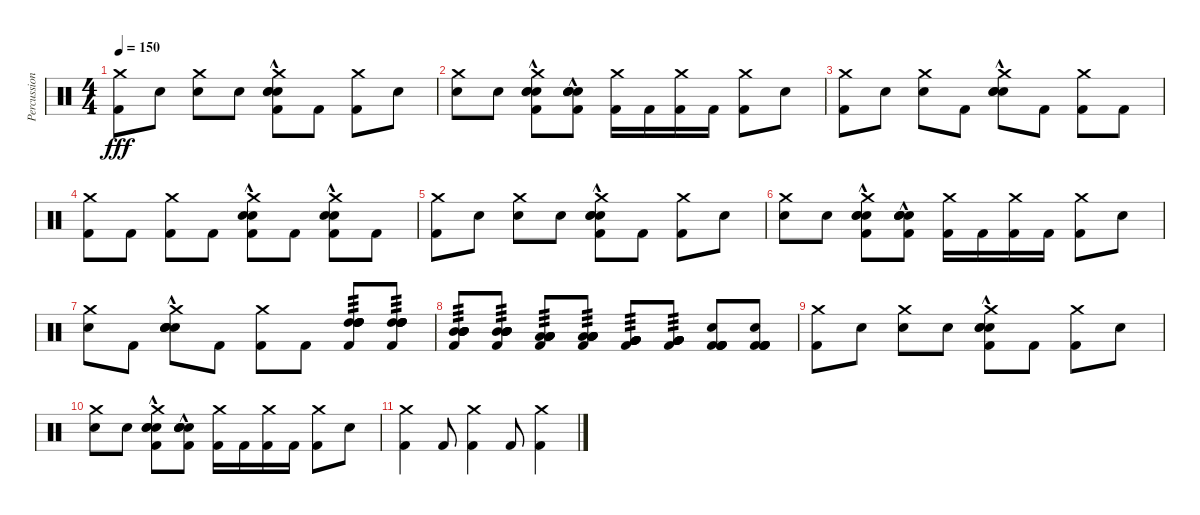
\track ("Percussion" "Percussion") {instrument percussion}
\staff {score}
\articulation defaults
\ts (4 4)
\tempo 150
\clef neutral
\ks c
("Crash medium (hit)" "Kick (hit) 2").8{dy fff} "Snare (hit)".8 ("Crash medium (hit)" "Snare (hit)").8 "Snare (hit)".8 ("Snare (hit) 2"{hac} "Snare (hit) 2"{hac} "Crash medium (hit)"{hac} "Snare (hit) 2"{hac} "Kick (hit) 2"{hac}).8 "Kick (hit) 2".8 ("Crash medium (hit)" "Kick (hit) 2").8 "Snare (hit)".8 |
("Crash medium (hit)" "Snare (hit)").8 "Snare (hit)".8 ("Snare (hit) 2"{hac} "Snare (hit) 2"{hac} "Crash medium (hit)"{hac} "Snare (hit) 2"{hac} "Kick (hit) 2"{hac}).8 ("Snare (hit) 2"{hac} "Snare (hit) 2"{hac} "Snare (hit) 2"{hac} "Snare (hit) 2"{hac} "Kick (hit) 2"{hac}).8 ("Crash medium (hit)" "Kick (hit) 2").16 "Kick (hit) 2".16 ("Crash medium (hit)" "Kick (hit) 2").16 "Kick (hit) 2".16 ("Crash medium (hit)" "Kick (hit) 2").8 "Snare (hit)".8 |
("Crash medium (hit)" "Kick (hit) 2").8 "Snare (hit)".8 ("Crash medium (hit)" "Snare (hit)").8 "Kick (hit) 2".8 ("Crash medium (hit)"{hac} "Snare (hit) 2"{hac} "Snare (hit) 2"{hac} "Snare (hit) 2"{hac}).8 "Kick (hit) 2".8 ("Crash medium (hit)" "Kick (hit) 2").8 "Kick (hit) 2".8 |
("Crash medium (hit)" "Kick (hit) 2").8 "Kick (hit) 2".8 ("Crash medium (hit)" "Kick (hit) 2").8 "Kick (hit) 2".8 ("Crash medium (hit)"{hac} "Snare (hit) 2"{hac} "Snare (hit) 2"{hac} "Kick (hit) 2"{hac}).8 "Kick (hit) 2".8 ("Crash medium (hit)"{hac} "Snare (hit) 2"{hac} "Snare (hit) 2"{hac} "Kick (hit) 2"{hac}).8 "Kick (hit) 2".8 |
("Crash medium (hit)" "Kick (hit) 2").8 "Snare (hit)".8 ("Crash medium (hit)" "Snare (hit)").8 "Snare (hit)".8 ("Snare (hit) 2"{hac} "Snare (hit) 2"{hac} "Crash medium (hit)"{hac} "Snare (hit) 2"{hac} "Kick (hit) 2"{hac}).8 "Kick (hit) 2".8 ("Crash medium (hit)" "Kick (hit) 2").8 "Snare (hit)".8 |
("Crash medium (hit)" "Snare (hit)").8 "Snare (hit)".8 ("Snare (hit) 2"{hac} "Snare (hit) 2"{hac} "Crash medium (hit)"{hac} "Snare (hit) 2"{hac} "Kick (hit) 2"{hac}).8 ("Snare (hit) 2"{hac} "Snare (hit) 2"{hac} "Snare (hit) 2"{hac} "Snare (hit) 2"{hac} "Kick (hit) 2"{hac}).8 ("Crash medium (hit)" "Kick (hit) 2").16 "Kick (hit) 2".16 ("Crash medium (hit)" "Kick (hit) 2").16 "Kick (hit) 2".16 ("Crash medium (hit)" "Kick (hit) 2").8 "Snare (hit)".8 |
("Crash medium (hit)" "Snare (hit)").8 "Kick (hit) 2".8 ("Snare (hit) 2"{hac} "Snare (hit) 2"{hac} "Crash medium (hit)"{hac} "Snare (hit) 2"{hac} "Snare (hit) 2"{hac}).8 "Kick (hit) 2".8 ("Crash medium (hit)" "Kick (hit) 2").8 "Kick (hit) 2".8 ("High Tom (hit)" "High Tom (hit)" "High Tom (hit)" "High Tom (hit)" "High Tom (hit)" "Kick (hit) 2").8{tp 3} ("High Tom (hit)" "High Tom (hit)" "High Tom (hit)" "High Tom (hit)" "High Tom (hit)" "Kick (hit) 2").8{tp 3} |
("Mid Tom (hit)" "Mid Tom (hit)" "Mid Tom (hit)" "Mid Tom (hit)" "Mid Tom (hit)" "Kick (hit) 2").8{tp 3} ("Mid Tom (hit)" "Mid Tom (hit)" "Mid Tom (hit)" "Mid Tom (hit)" "Mid Tom (hit)" "Kick (hit) 2").8{tp 3} ("Low Tom (hit)" "Low Tom (hit)" "Low Tom (hit)" "Low Tom (hit)" "Low Tom (hit)" "Kick (hit) 2").8{tp 3} ("Low Tom (hit)" "Low Tom (hit)" "Low Tom (hit)" "Low Tom (hit)" "Low Tom (hit)" "Kick (hit) 2").8{tp 3} ("Very Low Tom (hit)" "Very Low Tom (hit)" "Very Low Tom (hit)" "Very Low Tom (hit)" "Very Low Tom (hit)" "Kick (hit) 2").8{tp 3} ("Very Low Tom (hit)" "Very Low Tom (hit)" "Very Low Tom (hit)" "Very Low Tom (hit)" "Very Low Tom (hit)" "Kick (hit) 2").8{tp 3} ("Snare (hit) 2" "Kick (hit) 2" "Kick (hit) 2" "Kick (hit) 2" "Kick (hit) 2" "Kick (hit) 2").8 ("Snare (hit) 2" "Kick (hit) 2" "Kick (hit) 2" "Kick (hit) 2" "Kick (hit) 2" "Kick (hit) 2").8 |
("Crash medium (hit)" "Kick (hit) 2").8 "Snare (hit)".8 ("Crash medium (hit)" "Snare (hit)").8 "Snare (hit)".8 ("Snare (hit) 2"{hac} "Snare (hit) 2"{hac} "Crash medium (hit)"{hac} "Snare (hit) 2"{hac} "Kick (hit) 2"{hac}).8 "Kick (hit) 2".8 ("Crash medium (hit)" "Kick (hit) 2").8 "Snare (hit)".8 |
("Crash medium (hit)" "Snare (hit)").8 "Snare (hit)".8 ("Snare (hit) 2"{hac} "Snare (hit) 2"{hac} "Crash medium (hit)"{hac} "Snare (hit) 2"{hac} "Kick (hit) 2"{hac}).8 ("Snare (hit) 2"{hac} "Snare (hit) 2"{hac} "Snare (hit) 2"{hac} "Snare (hit) 2"{hac} "Kick (hit) 2"{hac}).8 ("Crash medium (hit)" "Kick (hit) 2").16 "Kick (hit) 2".16 ("Crash medium (hit)" "Kick (hit) 2").16 "Kick (hit) 2".16 ("Crash medium (hit)" "Kick (hit) 2").8 "Snare (hit)".8 |
("Crash medium (hit)" "Kick (hit) 2").4 "Kick (hit) 2".8 ("Crash medium (hit)" "Kick (hit) 2").4 "Kick (hit) 2".8 ("Crash medium (hit)" "Kick (hit) 2").4
